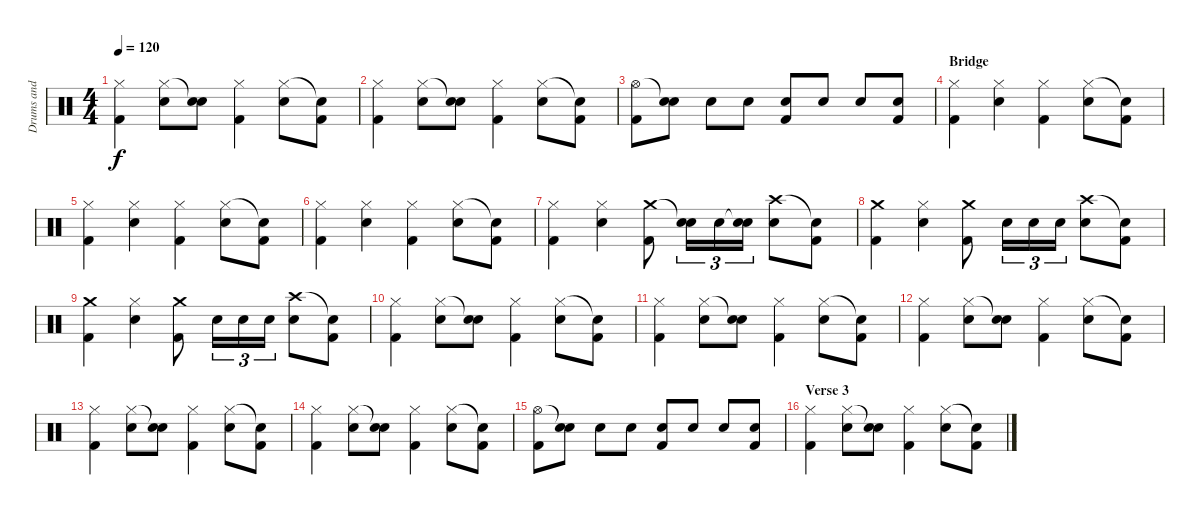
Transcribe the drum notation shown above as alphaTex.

\track ("Drums and Percussion" "Drums and ") {instrument percussion}
\staff {score}
\articulation defaults
\ts (4 4)
\tempo 120
\clef neutral
\ks c
("Hi-Hat (closed)" "Kick (hit) 2").4{dy f} ("Hi-Hat (closed)" "Snare (hit) 2").8 ("Snare (hit)"{t} "Snare (hit) 2").8 ("Hi-Hat (closed)" "Kick (hit) 2").4 ("Hi-Hat (closed)" "Snare (hit) 2").8 ("Snare (hit)"{t} "Kick (hit) 2").8 |
("Hi-Hat (closed)" "Kick (hit) 2").4 ("Hi-Hat (closed)" "Snare (hit) 2").8 ("Snare (hit)"{t} "Snare (hit) 2").8 ("Hi-Hat (closed)" "Kick (hit) 2").4 ("Hi-Hat (closed)" "Snare (hit) 2").8 ("Snare (hit)"{t} "Kick (hit) 2").8 |
("Hi-Hat (open)" "Kick (hit) 2").8 ("Snare (hit)"{t} "Snare (hit) 2").8 "Snare (hit) 2".8 "Snare (hit) 2".8 ("Snare (hit) 2" "Kick (hit) 2").8 "Snare (hit) 2".8 "Snare (hit) 2".8 ("Snare (hit) 2" "Kick (hit) 2").8 |
\section ("" "Bridge")
("Hi-Hat (closed)" "Kick (hit) 2").4 ("Hi-Hat (closed)" "Snare (hit) 2").4 ("Hi-Hat (closed)" "Kick (hit) 2").4 ("Hi-Hat (closed)" "Snare (hit) 2").8 ("Snare (hit)"{t} "Kick (hit) 2").8 |
("Hi-Hat (closed)" "Kick (hit) 2").4 ("Hi-Hat (closed)" "Snare (hit) 2").4 ("Hi-Hat (closed)" "Kick (hit) 2").4 ("Hi-Hat (closed)" "Snare (hit) 2").8 ("Snare (hit)"{t} "Kick (hit) 2").8 |
("Hi-Hat (closed)" "Kick (hit) 2").4 ("Hi-Hat (closed)" "Snare (hit) 2").4 ("Hi-Hat (closed)" "Kick (hit) 2").4 ("Hi-Hat (closed)" "Snare (hit) 2").8 ("Snare (hit)"{t} "Kick (hit) 2").8 |
("Hi-Hat (closed)" "Kick (hit) 2").4 ("Hi-Hat (closed)" "Snare (hit) 2").4 ("Crash medium (hit)" "Kick (hit) 2").8 ("Snare (hit)"{t} "Snare (hit) 2").16{tu (3 2)} "Snare (hit) 2".16{tu (3 2)} ("Snare (hit)"{t} "Snare (hit) 2").16{tu (3 2)} ("Crash high (hit)" "Snare (hit) 2").8 ("Snare (hit)"{t} "Kick (hit) 2").8 |
("Crash medium (hit)" "Kick (hit) 2").4 ("Hi-Hat (closed)" "Snare (hit) 2").4 ("Crash medium (hit)" "Kick (hit) 2").8 "Snare (hit) 2".16{tu (3 2)} "Snare (hit) 2".16{tu (3 2)} "Snare (hit) 2".16{tu (3 2)} ("Crash high (hit)" "Snare (hit) 2").8 ("Snare (hit)"{t} "Kick (hit) 2").8 |
("Crash medium (hit)" "Kick (hit) 2").4 ("Hi-Hat (closed)" "Snare (hit) 2").4 ("Crash medium (hit)" "Kick (hit) 2").8 "Snare (hit) 2".16{tu (3 2)} "Snare (hit) 2".16{tu (3 2)} "Snare (hit) 2".16{tu (3 2)} ("Crash high (hit)" "Snare (hit) 2").8 ("Snare (hit)"{t} "Kick (hit) 2").8 |
("Hi-Hat (closed)" "Kick (hit) 2").4 ("Hi-Hat (closed)" "Snare (hit) 2").8 ("Snare (hit)"{t} "Snare (hit) 2").8 ("Hi-Hat (closed)" "Kick (hit) 2").4 ("Hi-Hat (closed)" "Snare (hit) 2").8 ("Snare (hit)"{t} "Kick (hit) 2").8 |
("Hi-Hat (closed)" "Kick (hit) 2").4 ("Hi-Hat (closed)" "Snare (hit) 2").8 ("Snare (hit)"{t} "Snare (hit) 2").8 ("Hi-Hat (closed)" "Kick (hit) 2").4 ("Hi-Hat (closed)" "Snare (hit) 2").8 ("Snare (hit)"{t} "Kick (hit) 2").8 |
("Hi-Hat (closed)" "Kick (hit) 2").4 ("Hi-Hat (closed)" "Snare (hit) 2").8 ("Snare (hit)"{t} "Snare (hit) 2").8 ("Hi-Hat (closed)" "Kick (hit) 2").4 ("Hi-Hat (closed)" "Snare (hit) 2").8 ("Snare (hit)"{t} "Kick (hit) 2").8 |
("Hi-Hat (closed)" "Kick (hit) 2").4 ("Hi-Hat (closed)" "Snare (hit) 2").8 ("Snare (hit)"{t} "Snare (hit) 2").8 ("Hi-Hat (closed)" "Kick (hit) 2").4 ("Hi-Hat (closed)" "Snare (hit) 2").8 ("Snare (hit)"{t} "Kick (hit) 2").8 |
("Hi-Hat (closed)" "Kick (hit) 2").4 ("Hi-Hat (closed)" "Snare (hit) 2").8 ("Snare (hit)"{t} "Snare (hit) 2").8 ("Hi-Hat (closed)" "Kick (hit) 2").4 ("Hi-Hat (closed)" "Snare (hit) 2").8 ("Snare (hit)"{t} "Kick (hit) 2").8 |
("Hi-Hat (open)" "Kick (hit) 2").8 ("Snare (hit)"{t} "Snare (hit) 2").8 "Snare (hit) 2".8 "Snare (hit) 2".8 ("Snare (hit) 2" "Kick (hit) 2").8 "Snare (hit) 2".8 "Snare (hit) 2".8 ("Snare (hit) 2" "Kick (hit) 2").8 |
\section ("" "Verse 3")
("Hi-Hat (closed)" "Kick (hit) 2").4 ("Hi-Hat (closed)" "Snare (hit) 2").8 ("Snare (hit)"{t} "Snare (hit) 2").8 ("Hi-Hat (closed)" "Kick (hit) 2").4 ("Hi-Hat (closed)" "Snare (hit) 2").8 ("Snare (hit)"{t} "Kick (hit) 2").8
